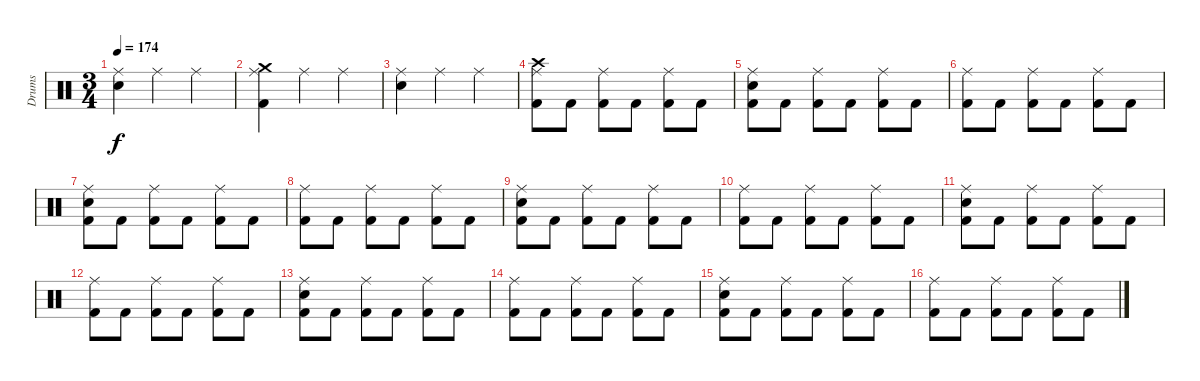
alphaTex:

\track ("Drums" "Drums") {instrument percussion}
\staff {score}
\articulation defaults
\ts (3 4)
\tempo 174
\clef neutral
\ks c
("Ride (middle)" "Snare (hit) 2").4{dy f} "Ride (middle)".4 "Ride (middle)".4 |
("Crash medium (hit)" "Ride (middle)" "Kick (hit) 2").4 "Ride (middle)".4 "Ride (middle)".4 |
("Ride (middle)" "Snare (hit) 2").4 "Ride (middle)".4 "Ride (middle)".4 |
("Crash high (hit)" "Ride (middle)" "Kick (hit) 2").8 "Kick (hit) 2".8 ("Ride (middle)" "Kick (hit) 2").8 "Kick (hit) 2".8 ("Ride (middle)" "Kick (hit) 2").8 "Kick (hit) 2".8 |
("Ride (middle)" "Snare (hit) 2" "Kick (hit) 2").8 "Kick (hit) 2".8 ("Ride (middle)" "Kick (hit) 2").8 "Kick (hit) 2".8 ("Ride (middle)" "Kick (hit) 2").8 "Kick (hit) 2".8 |
("Ride (middle)" "Kick (hit) 2").8 "Kick (hit) 2".8 ("Ride (middle)" "Kick (hit) 2").8 "Kick (hit) 2".8 ("Ride (middle)" "Kick (hit) 2").8 "Kick (hit) 2".8 |
("Ride (middle)" "Snare (hit) 2" "Kick (hit) 2").8 "Kick (hit) 2".8 ("Ride (middle)" "Kick (hit) 2").8 "Kick (hit) 2".8 ("Ride (middle)" "Kick (hit) 2").8 "Kick (hit) 2".8 |
("Ride (middle)" "Kick (hit) 2").8 "Kick (hit) 2".8 ("Ride (middle)" "Kick (hit) 2").8 "Kick (hit) 2".8 ("Ride (middle)" "Kick (hit) 2").8 "Kick (hit) 2".8 |
("Ride (middle)" "Snare (hit) 2" "Kick (hit) 2").8 "Kick (hit) 2".8 ("Ride (middle)" "Kick (hit) 2").8 "Kick (hit) 2".8 ("Ride (middle)" "Kick (hit) 2").8 "Kick (hit) 2".8 |
("Ride (middle)" "Kick (hit) 2").8 "Kick (hit) 2".8 ("Ride (middle)" "Kick (hit) 2").8 "Kick (hit) 2".8 ("Ride (middle)" "Kick (hit) 2").8 "Kick (hit) 2".8 |
("Ride (middle)" "Snare (hit) 2" "Kick (hit) 2").8 "Kick (hit) 2".8 ("Ride (middle)" "Kick (hit) 2").8 "Kick (hit) 2".8 ("Ride (middle)" "Kick (hit) 2").8 "Kick (hit) 2".8 |
("Ride (middle)" "Kick (hit) 2").8 "Kick (hit) 2".8 ("Ride (middle)" "Kick (hit) 2").8 "Kick (hit) 2".8 ("Ride (middle)" "Kick (hit) 2").8 "Kick (hit) 2".8 |
("Ride (middle)" "Snare (hit) 2" "Kick (hit) 2").8 "Kick (hit) 2".8 ("Ride (middle)" "Kick (hit) 2").8 "Kick (hit) 2".8 ("Ride (middle)" "Kick (hit) 2").8 "Kick (hit) 2".8 |
("Ride (middle)" "Kick (hit) 2").8 "Kick (hit) 2".8 ("Ride (middle)" "Kick (hit) 2").8 "Kick (hit) 2".8 ("Ride (middle)" "Kick (hit) 2").8 "Kick (hit) 2".8 |
("Ride (middle)" "Snare (hit) 2" "Kick (hit) 2").8 "Kick (hit) 2".8 ("Ride (middle)" "Kick (hit) 2").8 "Kick (hit) 2".8 ("Ride (middle)" "Kick (hit) 2").8 "Kick (hit) 2".8 |
("Ride (middle)" "Kick (hit) 2").8 "Kick (hit) 2".8 ("Ride (middle)" "Kick (hit) 2").8 "Kick (hit) 2".8 ("Ride (middle)" "Kick (hit) 2").8 "Kick (hit) 2".8
